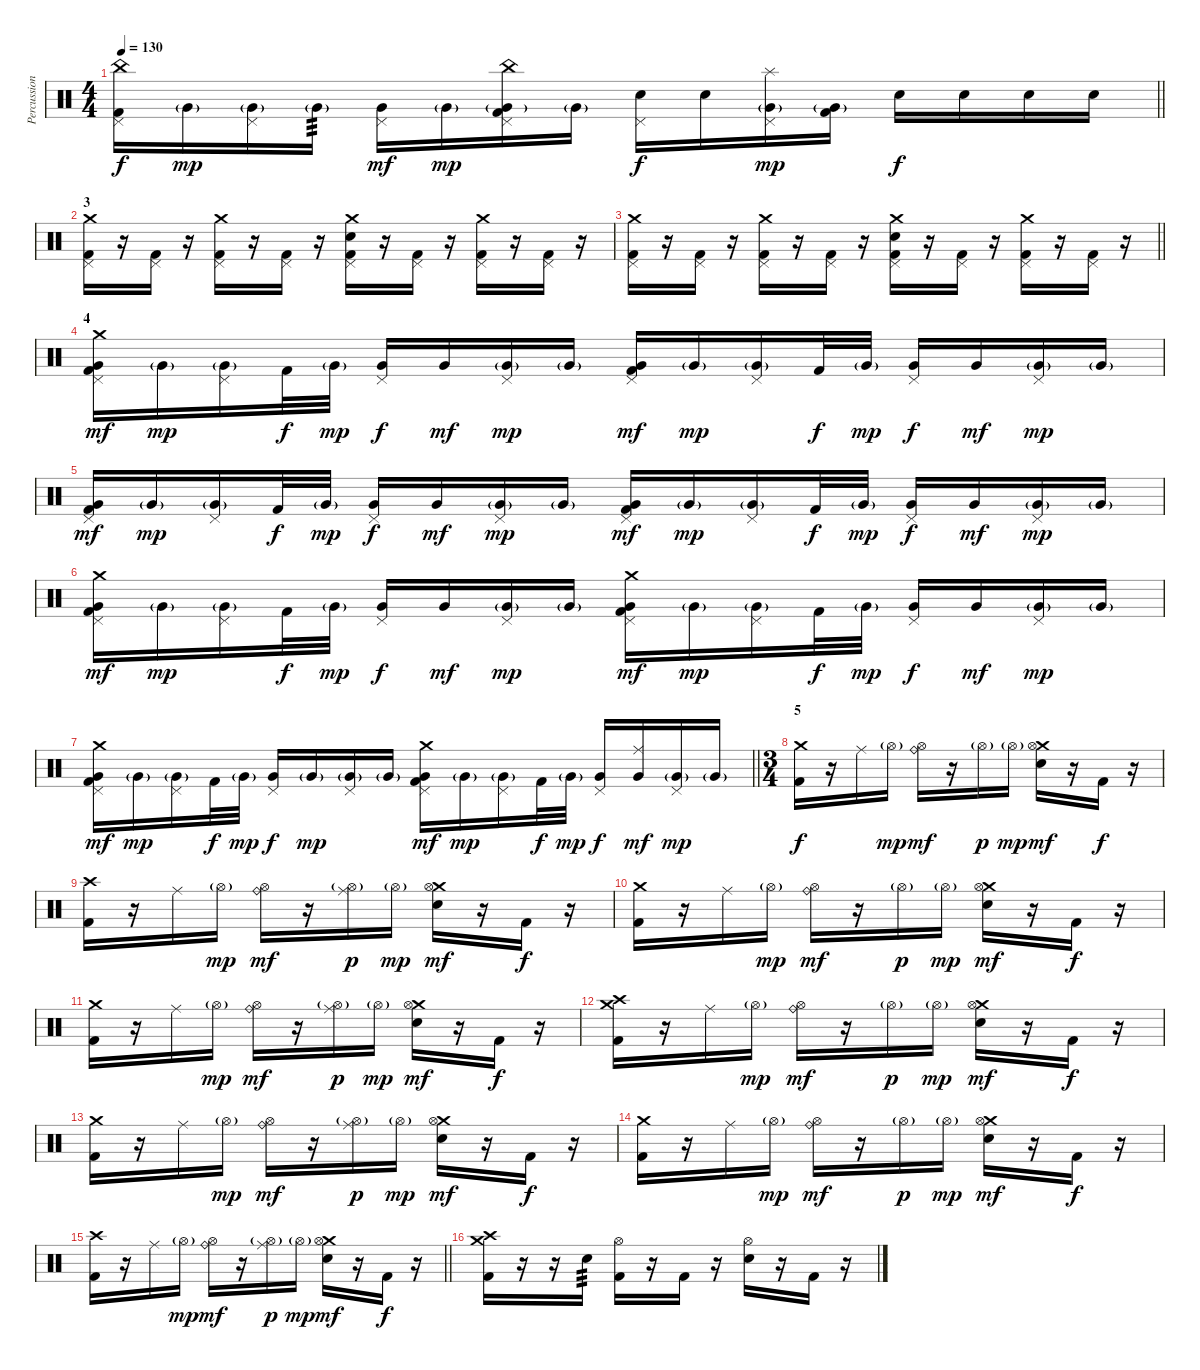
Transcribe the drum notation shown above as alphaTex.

\track ("Percussion" "Percussion") {instrument percussion}
\staff {score}
\articulation defaults
\ts (4 4)
\tempo 130
\clef neutral
\barLineRight lightlight
\ks c
("China (hit)" "Pedal Hi-Hat (hit)" "Kick (hit) 2").16{dy f} "Very Low Tom (hit)"{g}.16{dy mp} ("Pedal Hi-Hat (hit)" "Very Low Tom (hit)"{g}).16 "Very Low Tom (hit)"{g}.16{tp 3} ("Pedal Hi-Hat (hit)" "Very Low Tom (hit)").16{dy mf} "Very Low Tom (hit)"{g}.16{dy mp} ("China (hit)" "Pedal Hi-Hat (hit)" "Very Low Tom (hit)"{g} "Kick (hit) 2").16 "Very Low Tom (hit)"{g}.16 ("Pedal Hi-Hat (hit)" "Snare (hit) 2").16{dy f} "Snare (hit) 2".16 ("Splash (hit)" "Pedal Hi-Hat (hit)" "Very Low Tom (hit)"{g}).16{dy mp} ("Very Low Tom (hit)"{g} "Kick (hit) 2").16 "Snare (hit) 2".16{dy f} "Snare (hit) 2".16 "Snare (hit) 2".16 "Snare (hit) 2".16 |
\section ("" "3")
("Crash medium (hit)" "Pedal Hi-Hat (hit)" "Kick (hit) 2").16 r.16 ("Pedal Hi-Hat (hit)" "Kick (hit) 2").16 r.16 ("Crash medium (hit)" "Pedal Hi-Hat (hit)" "Kick (hit) 2").16 r.16 ("Pedal Hi-Hat (hit)" "Kick (hit) 2").16 r.16 ("Crash medium (hit)" "Pedal Hi-Hat (hit)" "Snare (hit) 2" "Kick (hit) 2").16 r.16 ("Pedal Hi-Hat (hit)" "Kick (hit) 2").16 r.16 ("Crash medium (hit)" "Pedal Hi-Hat (hit)" "Kick (hit) 2").16 r.16 ("Pedal Hi-Hat (hit)" "Kick (hit) 2").16 r.16 |
\barLineRight lightlight
("Crash medium (hit)" "Pedal Hi-Hat (hit)" "Kick (hit) 2").16 r.16 ("Pedal Hi-Hat (hit)" "Kick (hit) 2").16 r.16 ("Crash medium (hit)" "Pedal Hi-Hat (hit)" "Kick (hit) 2").16 r.16 ("Pedal Hi-Hat (hit)" "Kick (hit) 2").16 r.16 ("Crash medium (hit)" "Pedal Hi-Hat (hit)" "Snare (hit) 2" "Kick (hit) 2").16 r.16 ("Pedal Hi-Hat (hit)" "Kick (hit) 2").16 r.16 ("Crash medium (hit)" "Pedal Hi-Hat (hit)" "Kick (hit) 2").16 r.16 ("Pedal Hi-Hat (hit)" "Kick (hit) 2").16 r.16 |
\section ("" "4")
("Crash medium (hit)" "Pedal Hi-Hat (hit)" "Very Low Tom (hit)" "Kick (hit) 2").16{dy mf} "Very Low Tom (hit)"{g}.16{dy mp} ("Pedal Hi-Hat (hit)" "Very Low Tom (hit)"{g}).16 "Kick (hit) 2".32{dy f} "Very Low Tom (hit)"{g}.32{dy mp} ("Pedal Hi-Hat (hit)" "Very Low Tom (hit)").16{dy f} "Very Low Tom (hit)".16{dy mf} ("Pedal Hi-Hat (hit)" "Very Low Tom (hit)"{g}).16{dy mp} "Very Low Tom (hit)"{g}.16 ("Pedal Hi-Hat (hit)" "Very Low Tom (hit)" "Kick (hit) 2").16{dy mf} "Very Low Tom (hit)"{g}.16{dy mp} ("Pedal Hi-Hat (hit)" "Very Low Tom (hit)"{g}).16 "Kick (hit) 2".32{dy f} "Very Low Tom (hit)"{g}.32{dy mp} ("Pedal Hi-Hat (hit)" "Very Low Tom (hit)").16{dy f} "Very Low Tom (hit)".16{dy mf} ("Pedal Hi-Hat (hit)" "Very Low Tom (hit)"{g}).16{dy mp} "Very Low Tom (hit)"{g}.16 |
("Pedal Hi-Hat (hit)" "Very Low Tom (hit)" "Kick (hit) 2").16{dy mf} "Very Low Tom (hit)"{g}.16{dy mp} ("Pedal Hi-Hat (hit)" "Very Low Tom (hit)"{g}).16 "Kick (hit) 2".32{dy f} "Very Low Tom (hit)"{g}.32{dy mp} ("Pedal Hi-Hat (hit)" "Very Low Tom (hit)").16{dy f} "Very Low Tom (hit)".16{dy mf} ("Pedal Hi-Hat (hit)" "Very Low Tom (hit)"{g}).16{dy mp} "Very Low Tom (hit)"{g}.16 ("Pedal Hi-Hat (hit)" "Very Low Tom (hit)" "Kick (hit) 2").16{dy mf} "Very Low Tom (hit)"{g}.16{dy mp} ("Pedal Hi-Hat (hit)" "Very Low Tom (hit)"{g}).16 "Kick (hit) 2".32{dy f} "Very Low Tom (hit)"{g}.32{dy mp} ("Pedal Hi-Hat (hit)" "Very Low Tom (hit)").16{dy f} "Very Low Tom (hit)".16{dy mf} ("Pedal Hi-Hat (hit)" "Very Low Tom (hit)"{g}).16{dy mp} "Very Low Tom (hit)"{g}.16 |
("Crash medium (hit)" "Pedal Hi-Hat (hit)" "Very Low Tom (hit)" "Kick (hit) 2").16{dy mf} "Very Low Tom (hit)"{g}.16{dy mp} ("Pedal Hi-Hat (hit)" "Very Low Tom (hit)"{g}).16 "Kick (hit) 2".32{dy f} "Very Low Tom (hit)"{g}.32{dy mp} ("Pedal Hi-Hat (hit)" "Very Low Tom (hit)").16{dy f} "Very Low Tom (hit)".16{dy mf} ("Pedal Hi-Hat (hit)" "Very Low Tom (hit)"{g}).16{dy mp} "Very Low Tom (hit)"{g}.16 ("Crash medium (hit)" "Pedal Hi-Hat (hit)" "Very Low Tom (hit)" "Kick (hit) 2").16{dy mf} "Very Low Tom (hit)"{g}.16{dy mp} ("Pedal Hi-Hat (hit)" "Very Low Tom (hit)"{g}).16 "Kick (hit) 2".32{dy f} "Very Low Tom (hit)"{g}.32{dy mp} ("Pedal Hi-Hat (hit)" "Very Low Tom (hit)").16{dy f} "Very Low Tom (hit)".16{dy mf} ("Pedal Hi-Hat (hit)" "Very Low Tom (hit)"{g}).16{dy mp} "Very Low Tom (hit)"{g}.16 |
\barLineRight lightlight
("Crash medium (hit)" "Pedal Hi-Hat (hit)" "Very Low Tom (hit)" "Kick (hit) 2").16{dy mf} "Very Low Tom (hit)"{g}.16{dy mp} ("Pedal Hi-Hat (hit)" "Very Low Tom (hit)"{g}).16 "Kick (hit) 2".32{dy f} "Very Low Tom (hit)"{g}.32{dy mp} ("Pedal Hi-Hat (hit)" "Very Low Tom (hit)").16{dy f} "Very Low Tom (hit)"{g}.16{dy mp} ("Pedal Hi-Hat (hit)" "Very Low Tom (hit)"{g}).16 "Very Low Tom (hit)"{g}.16 ("Crash medium (hit)" "Pedal Hi-Hat (hit)" "Very Low Tom (hit)" "Kick (hit) 2").16{dy mf} "Very Low Tom (hit)"{g}.16{dy mp} ("Pedal Hi-Hat (hit)" "Very Low Tom (hit)"{g}).16 "Kick (hit) 2".32{dy f} "Very Low Tom (hit)"{g}.32{dy mp} ("Pedal Hi-Hat (hit)" "Very Low Tom (hit)").16{dy f} ("Ride (middle)" "Very Low Tom (hit)").16{dy mf} ("Pedal Hi-Hat (hit)" "Very Low Tom (hit)"{g}).16{dy mp} "Very Low Tom (hit)"{g}.16 |
\ts (3 4)
\section ("" "5")
("Crash medium (hit)" "Kick (hit) 2").16{dy f} r.16 "Ride (middle)".16 "Hi-Hat (open)"{g}.16{dy mp} ("Ride (bell)" "Hi-Hat (open)").16{dy mf} r.16 "Hi-Hat (open)"{g}.16{dy p} "Hi-Hat (open)"{g}.16{dy mp} ("Crash medium (hit)" "Hi-Hat (open)" "Snare (hit) 2").16{dy mf} r.16 "Kick (hit) 2".16{dy f} r.16 |
("Crash high (hit)" "Kick (hit) 2").16 r.16 "Ride (middle)".16 "Hi-Hat (open)"{g}.16{dy mp} ("Ride (bell)" "Hi-Hat (open)").16{dy mf} r.16 ("Ride (middle)" "Hi-Hat (open)"{g}).16{dy p} "Hi-Hat (open)"{g}.16{dy mp} ("Crash medium (hit)" "Hi-Hat (open)" "Snare (hit) 2").16{dy mf} r.16 "Kick (hit) 2".16{dy f} r.16 |
("Crash medium (hit)" "Kick (hit) 2").16 r.16 "Ride (middle)".16 "Hi-Hat (open)"{g}.16{dy mp} ("Ride (bell)" "Hi-Hat (open)").16{dy mf} r.16 "Hi-Hat (open)"{g}.16{dy p} "Hi-Hat (open)"{g}.16{dy mp} ("Crash medium (hit)" "Hi-Hat (open)" "Snare (hit) 2").16{dy mf} r.16 "Kick (hit) 2".16{dy f} r.16 |
("Crash medium (hit)" "Kick (hit) 2").16 r.16 "Ride (middle)".16 "Hi-Hat (open)"{g}.16{dy mp} ("Ride (bell)" "Hi-Hat (open)").16{dy mf} r.16 ("Ride (middle)" "Hi-Hat (open)"{g}).16{dy p} "Hi-Hat (open)"{g}.16{dy mp} ("Crash medium (hit)" "Hi-Hat (open)" "Snare (hit) 2").16{dy mf} r.16 "Kick (hit) 2".16{dy f} r.16 |
("Crash medium (hit)" "Crash high (hit)" "Kick (hit) 2").16 r.16 "Ride (middle)".16 "Hi-Hat (open)"{g}.16{dy mp} ("Ride (bell)" "Hi-Hat (open)").16{dy mf} r.16 "Hi-Hat (open)"{g}.16{dy p} "Hi-Hat (open)"{g}.16{dy mp} ("Crash medium (hit)" "Hi-Hat (open)" "Snare (hit) 2").16{dy mf} r.16 "Kick (hit) 2".16{dy f} r.16 |
("Crash medium (hit)" "Kick (hit) 2").16 r.16 "Ride (middle)".16 "Hi-Hat (open)"{g}.16{dy mp} ("Ride (bell)" "Hi-Hat (open)").16{dy mf} r.16 ("Ride (middle)" "Hi-Hat (open)"{g}).16{dy p} "Hi-Hat (open)"{g}.16{dy mp} ("Crash medium (hit)" "Hi-Hat (open)" "Snare (hit) 2").16{dy mf} r.16 "Kick (hit) 2".16{dy f} r.16 |
("Crash medium (hit)" "Kick (hit) 2").16 r.16 "Ride (middle)".16 "Hi-Hat (open)"{g}.16{dy mp} ("Ride (bell)" "Hi-Hat (open)").16{dy mf} r.16 "Hi-Hat (open)"{g}.16{dy p} "Hi-Hat (open)"{g}.16{dy mp} ("Crash medium (hit)" "Hi-Hat (open)" "Snare (hit) 2").16{dy mf} r.16 "Kick (hit) 2".16{dy f} r.16 |
\barLineRight lightlight
("Crash high (hit)" "Kick (hit) 2").16 r.16 "Ride (middle)".16 "Hi-Hat (open)"{g}.16{dy mp} ("Ride (bell)" "Hi-Hat (open)").16{dy mf} r.16 ("Ride (middle)" "Hi-Hat (open)"{g}).16{dy p} "Hi-Hat (open)"{g}.16{dy mp} ("Crash medium (hit)" "Hi-Hat (open)" "Snare (hit) 2").16{dy mf} r.16 "Kick (hit) 2".16{dy f} r.16 |
\section ("" "")
("Crash medium (hit)" "Crash high (hit)" "Kick (hit) 2").16 r.16 r.16 "Snare (hit) 2".16{tp 3} ("Hi-Hat (open)" "Kick (hit) 2").16 r.16 "Kick (hit) 2".16 r.16 ("Hi-Hat (open)" "Snare (hit) 2").16 r.16 "Kick (hit) 2".16 r.16
